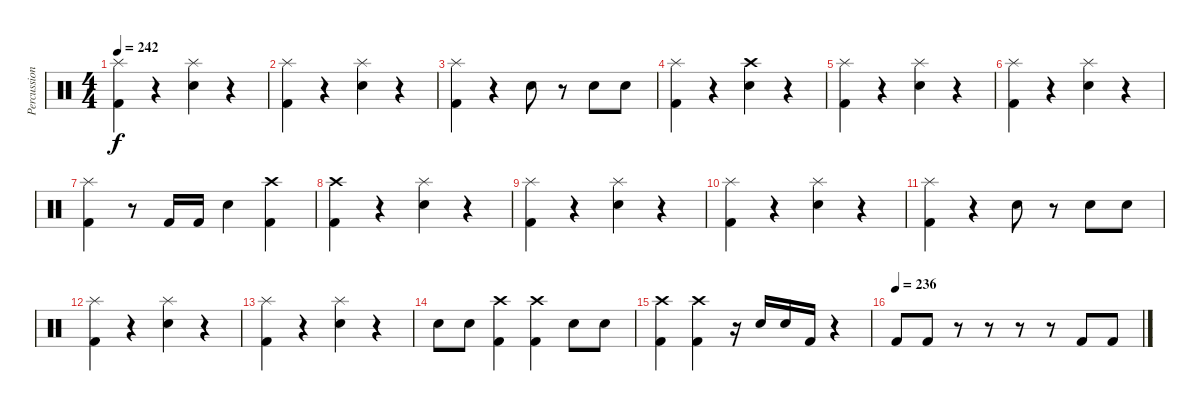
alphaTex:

\track ("Percussion" "Percussion") {instrument percussion}
\staff {score}
\articulation defaults
\ts (4 4)
\tempo 242
\clef neutral
\ks c
("Splash (hit)" "Kick (hit) 2").4{dy f} r.4 ("Splash (hit)" "Electric Snare (hit)").4 r.4 |
("Splash (hit)" "Kick (hit) 2").4 r.4 ("Splash (hit)" "Electric Snare (hit)").4 r.4 |
("Splash (hit)" "Kick (hit) 2").4 r.4 "Electric Snare (hit)".8 r.8 "Electric Snare (hit)".8 "Electric Snare (hit)".8 |
("Splash (hit)" "Kick (hit) 2").4 r.4 ("Crash high (hit)" "Electric Snare (hit)").4 r.4 |
("Splash (hit)" "Kick (hit) 2").4 r.4 ("Splash (hit)" "Electric Snare (hit)").4 r.4 |
("Splash (hit)" "Kick (hit) 2").4 r.4 ("Splash (hit)" "Electric Snare (hit)").4 r.4 |
("Splash (hit)" "Kick (hit) 2").4 r.8 "Kick (hit) 2".16 "Kick (hit) 2".16 "Electric Snare (hit)".4 ("Crash high (hit)" "Kick (hit) 2").4 |
("Crash high (hit)" "Kick (hit) 2").4 r.4 ("Splash (hit)" "Electric Snare (hit)").4 r.4 |
("Splash (hit)" "Kick (hit) 2").4 r.4 ("Splash (hit)" "Electric Snare (hit)").4 r.4 |
("Splash (hit)" "Kick (hit) 2").4 r.4 ("Splash (hit)" "Electric Snare (hit)").4 r.4 |
("Splash (hit)" "Kick (hit) 2").4 r.4 "Electric Snare (hit)".8 r.8 "Electric Snare (hit)".8 "Electric Snare (hit)".8 |
("Splash (hit)" "Kick (hit) 2").4 r.4 ("Splash (hit)" "Electric Snare (hit)").4 r.4 |
("Splash (hit)" "Kick (hit) 2").4 r.4 ("Splash (hit)" "Electric Snare (hit)").4 r.4 |
"Electric Snare (hit)".8 "Electric Snare (hit)".8 ("Crash high (hit)" "Kick (hit) 2").4 ("Crash high (hit)" "Kick (hit) 2").4 "Electric Snare (hit)".8 "Electric Snare (hit)".8 |
("Crash high (hit)" "Kick (hit) 2").4 ("Crash high (hit)" "Kick (hit) 2").4 r.16 "Electric Snare (hit)".16 "Electric Snare (hit)".16 "Kick (hit) 2".16 r.4 |
\tempo (236)
"Kick (hit) 2".8 "Kick (hit) 2".8 r.8 r.8 r.8 r.8 "Kick (hit) 2".8 "Kick (hit) 2".8
